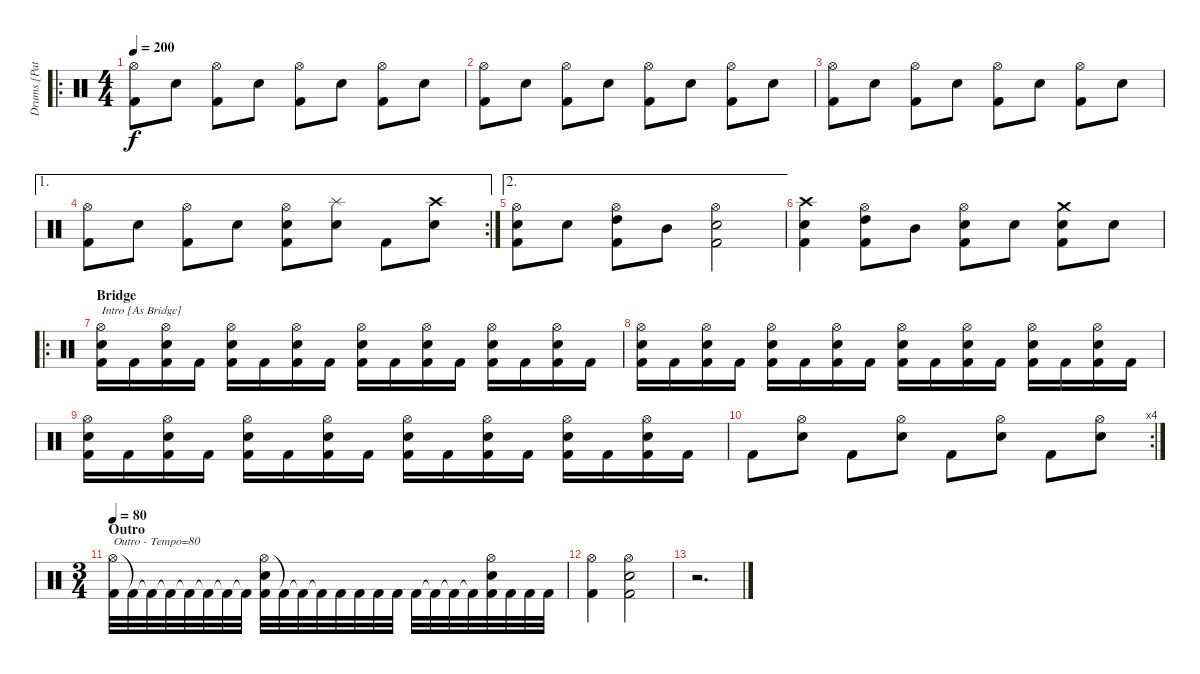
\track ("Drums [Patrick Robert]" "Drums [Pat") {instrument percussion}
\staff {score}
\articulation defaults
\ro
\ts (4 4)
\tempo 200
\clef neutral
\ks c
("Hi-Hat (open)" "Kick (hit) 2").8{dy f} "Electric Snare (hit)".8 ("Hi-Hat (open)" "Kick (hit) 2").8 "Electric Snare (hit)".8 ("Hi-Hat (open)" "Kick (hit) 2").8 "Electric Snare (hit)".8 ("Hi-Hat (open)" "Kick (hit) 2").8 "Electric Snare (hit)".8 |
("Hi-Hat (open)" "Kick (hit) 2").8 "Electric Snare (hit)".8 ("Hi-Hat (open)" "Kick (hit) 2").8 "Electric Snare (hit)".8 ("Hi-Hat (open)" "Kick (hit) 2").8 "Electric Snare (hit)".8 ("Hi-Hat (open)" "Kick (hit) 2").8 "Electric Snare (hit)".8 |
("Hi-Hat (open)" "Kick (hit) 2").8 "Electric Snare (hit)".8 ("Hi-Hat (open)" "Kick (hit) 2").8 "Electric Snare (hit)".8 ("Hi-Hat (open)" "Kick (hit) 2").8 "Electric Snare (hit)".8 ("Hi-Hat (open)" "Kick (hit) 2").8 "Electric Snare (hit)".8 |
\ae 1
\rc 2
("Hi-Hat (open)" "Kick (hit) 2").8 "Electric Snare (hit)".8 ("Hi-Hat (open)" "Kick (hit) 2").8 "Electric Snare (hit)".8 ("Hi-Hat (open)" "Electric Snare (hit)" "Kick (hit) 2").8 ("Splash (hit)" "Electric Snare (hit)").8 "Kick (hit) 2".8 ("Crash high (hit)" "Electric Snare (hit)").8 |
\ae 2
("Hi-Hat (open)" "Electric Snare (hit)" "Kick (hit) 2").8 "Electric Snare (hit)".8 ("Hi-Hat (open)" "High Tom (hit)" "Kick (hit) 2").8 "Mid Tom (hit)".8 ("Hi-Hat (open)" "Electric Snare (hit)" "Kick (hit) 2").2 |
("Crash high (hit)" "Electric Snare (hit)" "Kick (hit) 2").4 ("Hi-Hat (open)" "High Tom (hit)" "Kick (hit) 2").8 "Mid Tom (hit)".8 ("Hi-Hat (open)" "Electric Snare (hit)" "Kick (hit) 2").8 "Electric Snare (hit)".8 ("Crash medium (hit)" "Electric Snare (hit)" "Kick (hit) 2").8 "Electric Snare (hit)".8 |
\ro
\section ("" "Bridge")
("Hi-Hat (open)" "Electric Snare (hit)" "Kick (hit) 2").16{txt "Intro [As Bridge]"} "Kick (hit) 2".16 ("Hi-Hat (open)" "Electric Snare (hit)" "Kick (hit) 2").16 "Kick (hit) 2".16 ("Hi-Hat (open)" "Electric Snare (hit)" "Kick (hit) 2").16 "Kick (hit) 2".16 ("Hi-Hat (open)" "Electric Snare (hit)" "Kick (hit) 2").16 "Kick (hit) 2".16 ("Hi-Hat (open)" "Electric Snare (hit)" "Kick (hit) 2").16 "Kick (hit) 2".16 ("Hi-Hat (open)" "Electric Snare (hit)" "Kick (hit) 2").16 "Kick (hit) 2".16 ("Hi-Hat (open)" "Electric Snare (hit)" "Kick (hit) 2").16 "Kick (hit) 2".16 ("Hi-Hat (open)" "Electric Snare (hit)" "Kick (hit) 2").16 "Kick (hit) 2".16 |
("Hi-Hat (open)" "Electric Snare (hit)" "Kick (hit) 2").16 "Kick (hit) 2".16 ("Hi-Hat (open)" "Electric Snare (hit)" "Kick (hit) 2").16 "Kick (hit) 2".16 ("Hi-Hat (open)" "Electric Snare (hit)" "Kick (hit) 2").16 "Kick (hit) 2".16 ("Hi-Hat (open)" "Electric Snare (hit)" "Kick (hit) 2").16 "Kick (hit) 2".16 ("Hi-Hat (open)" "Electric Snare (hit)" "Kick (hit) 2").16 "Kick (hit) 2".16 ("Hi-Hat (open)" "Electric Snare (hit)" "Kick (hit) 2").16 "Kick (hit) 2".16 ("Hi-Hat (open)" "Electric Snare (hit)" "Kick (hit) 2").16 "Kick (hit) 2".16 ("Hi-Hat (open)" "Electric Snare (hit)" "Kick (hit) 2").16 "Kick (hit) 2".16 |
("Hi-Hat (open)" "Electric Snare (hit)" "Kick (hit) 2").16 "Kick (hit) 2".16 ("Hi-Hat (open)" "Electric Snare (hit)" "Kick (hit) 2").16 "Kick (hit) 2".16 ("Hi-Hat (open)" "Electric Snare (hit)" "Kick (hit) 2").16 "Kick (hit) 2".16 ("Hi-Hat (open)" "Electric Snare (hit)" "Kick (hit) 2").16 "Kick (hit) 2".16 ("Hi-Hat (open)" "Electric Snare (hit)" "Kick (hit) 2").16 "Kick (hit) 2".16 ("Hi-Hat (open)" "Electric Snare (hit)" "Kick (hit) 2").16 "Kick (hit) 2".16 ("Hi-Hat (open)" "Electric Snare (hit)" "Kick (hit) 2").16 "Kick (hit) 2".16 ("Hi-Hat (open)" "Electric Snare (hit)" "Kick (hit) 2").16 "Kick (hit) 2".16 |
\rc 4 "Kick (hit) 2".8
("Hi-Hat (open)" "Electric Snare (hit)").8 "Kick (hit) 2".8 ("Hi-Hat (open)" "Electric Snare (hit)").8 "Kick (hit) 2".8 ("Hi-Hat (open)" "Electric Snare (hit)").8 "Kick (hit) 2".8 ("Hi-Hat (open)" "Electric Snare (hit)").8 |
\ts (3 4)
\section ("" "Outro")
\tempo 80
("Hi-Hat (open)" "Kick (hit) 2").32{txt "Outro - Tempo=80"} "Kick (hit) 2"{t}.32 "Kick (hit) 2"{t}.32 "Kick (hit) 2"{t}.32 "Kick (hit) 2"{t}.32 "Kick (hit) 2"{t}.32 "Kick (hit) 2"{t}.32 "Kick (hit) 2"{t}.32 ("Hi-Hat (open)" "Electric Snare (hit)" "Kick (hit) 2").32 "Kick (hit) 2"{t}.32 "Kick (hit) 2"{t}.32 "Kick (hit) 2"{t}.32 "Kick (hit) 2".32 "Kick (hit) 2".32 "Kick (hit) 2".32 "Kick (hit) 2".32 "Kick (hit) 2".32 "Kick (hit) 2"{t}.32 "Kick (hit) 2"{t}.32 "Kick (hit) 2"{t}.32 ("Hi-Hat (open)" "Electric Snare (hit)" "Kick (hit) 2").32 "Kick (hit) 2".32 "Kick (hit) 2".32 "Kick (hit) 2".32 |
("Hi-Hat (open)" "Kick (hit) 2").4 ("Hi-Hat (open)" "Electric Snare (hit)" "Kick (hit) 2").2 |
r.2{d}
